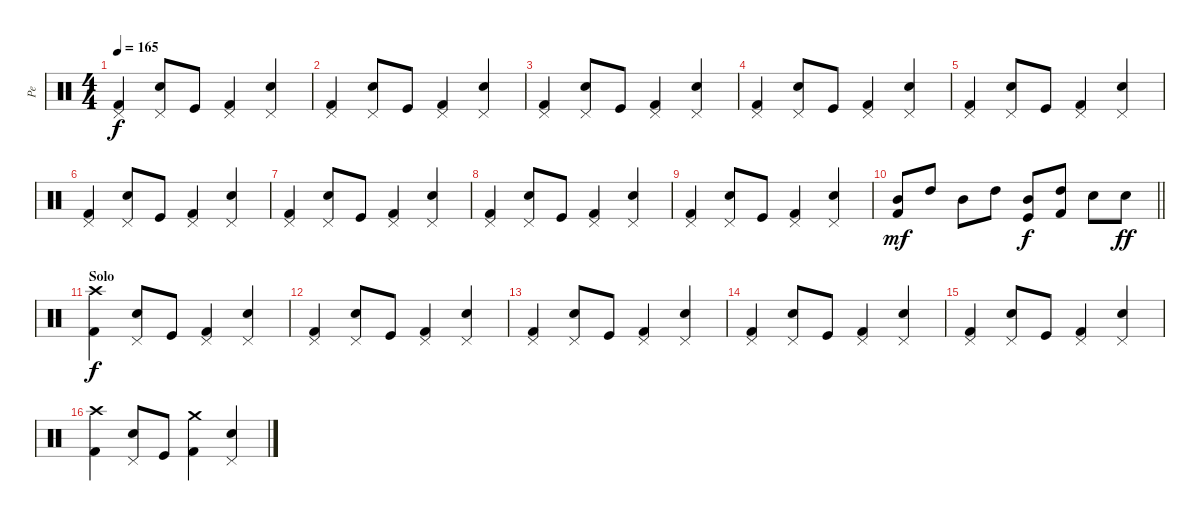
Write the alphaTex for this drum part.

\track ("Pe" "Pe") {instrument percussion}
\staff {score}
\articulation defaults
\ts (4 4)
\tempo 165
\clef neutral
\ks c
("Kick (hit) 2" "Pedal Hi-Hat (hit)").4{dy f} ("Electric Snare (hit)" "Pedal Hi-Hat (hit)").8 "Kick (hit)".8 ("Kick (hit) 2" "Pedal Hi-Hat (hit)").4 ("Electric Snare (hit)" "Pedal Hi-Hat (hit)").4 |
("Kick (hit) 2" "Pedal Hi-Hat (hit)").4 ("Electric Snare (hit)" "Pedal Hi-Hat (hit)").8 "Kick (hit)".8 ("Kick (hit) 2" "Pedal Hi-Hat (hit)").4 ("Electric Snare (hit)" "Pedal Hi-Hat (hit)").4 |
("Kick (hit) 2" "Pedal Hi-Hat (hit)").4 ("Electric Snare (hit)" "Pedal Hi-Hat (hit)").8 "Kick (hit)".8 ("Kick (hit) 2" "Pedal Hi-Hat (hit)").4 ("Electric Snare (hit)" "Pedal Hi-Hat (hit)").4 |
("Kick (hit) 2" "Pedal Hi-Hat (hit)").4 ("Electric Snare (hit)" "Pedal Hi-Hat (hit)").8 "Kick (hit)".8 ("Kick (hit) 2" "Pedal Hi-Hat (hit)").4 ("Electric Snare (hit)" "Pedal Hi-Hat (hit)").4 |
("Kick (hit) 2" "Pedal Hi-Hat (hit)").4 ("Electric Snare (hit)" "Pedal Hi-Hat (hit)").8 "Kick (hit)".8 ("Kick (hit) 2" "Pedal Hi-Hat (hit)").4 ("Electric Snare (hit)" "Pedal Hi-Hat (hit)").4 |
("Kick (hit) 2" "Pedal Hi-Hat (hit)").4 ("Electric Snare (hit)" "Pedal Hi-Hat (hit)").8 "Kick (hit)".8 ("Kick (hit) 2" "Pedal Hi-Hat (hit)").4 ("Electric Snare (hit)" "Pedal Hi-Hat (hit)").4 |
("Kick (hit) 2" "Pedal Hi-Hat (hit)").4 ("Electric Snare (hit)" "Pedal Hi-Hat (hit)").8 "Kick (hit)".8 ("Kick (hit) 2" "Pedal Hi-Hat (hit)").4 ("Electric Snare (hit)" "Pedal Hi-Hat (hit)").4 |
("Kick (hit) 2" "Pedal Hi-Hat (hit)").4 ("Electric Snare (hit)" "Pedal Hi-Hat (hit)").8 "Kick (hit)".8 ("Kick (hit) 2" "Pedal Hi-Hat (hit)").4 ("Electric Snare (hit)" "Pedal Hi-Hat (hit)").4 |
("Kick (hit) 2" "Pedal Hi-Hat (hit)").4 ("Electric Snare (hit)" "Pedal Hi-Hat (hit)").8 "Kick (hit)".8 ("Kick (hit) 2" "Pedal Hi-Hat (hit)").4 ("Electric Snare (hit)" "Pedal Hi-Hat (hit)").4 |
\barLineRight lightlight
("Kick (hit) 2" "Mid Tom (hit)").8{dy mf} "High Tom (hit)".8 "Mid Tom (hit)".8 "High Tom (hit)".8 ("Kick (hit)" "Mid Tom (hit)").8{dy f} ("Kick (hit) 2" "High Tom (hit)").8 "Electric Snare (hit)".8 "Electric Snare (hit)".8{dy ff} |
\section ("" "Solo")
("Kick (hit) 2" "Crash high (hit)").4{dy f} ("Electric Snare (hit)" "Pedal Hi-Hat (hit)").8 "Kick (hit)".8 ("Kick (hit) 2" "Pedal Hi-Hat (hit)").4 ("Electric Snare (hit)" "Pedal Hi-Hat (hit)").4 |
("Kick (hit) 2" "Pedal Hi-Hat (hit)").4 ("Electric Snare (hit)" "Pedal Hi-Hat (hit)").8 "Kick (hit)".8 ("Kick (hit) 2" "Pedal Hi-Hat (hit)").4 ("Electric Snare (hit)" "Pedal Hi-Hat (hit)").4 |
("Kick (hit) 2" "Pedal Hi-Hat (hit)").4 ("Electric Snare (hit)" "Pedal Hi-Hat (hit)").8 "Kick (hit)".8 ("Kick (hit) 2" "Pedal Hi-Hat (hit)").4 ("Electric Snare (hit)" "Pedal Hi-Hat (hit)").4 |
("Kick (hit) 2" "Pedal Hi-Hat (hit)").4 ("Electric Snare (hit)" "Pedal Hi-Hat (hit)").8 "Kick (hit)".8 ("Kick (hit) 2" "Pedal Hi-Hat (hit)").4 ("Electric Snare (hit)" "Pedal Hi-Hat (hit)").4 |
("Kick (hit) 2" "Pedal Hi-Hat (hit)").4 ("Electric Snare (hit)" "Pedal Hi-Hat (hit)").8 "Kick (hit)".8 ("Kick (hit) 2" "Pedal Hi-Hat (hit)").4 ("Electric Snare (hit)" "Pedal Hi-Hat (hit)").4 |
("Kick (hit) 2" "Crash high (hit)").4 ("Electric Snare (hit)" "Pedal Hi-Hat (hit)").8 "Kick (hit)".8 ("Kick (hit) 2" "Crash medium (hit)").4 ("Electric Snare (hit)" "Pedal Hi-Hat (hit)").4
